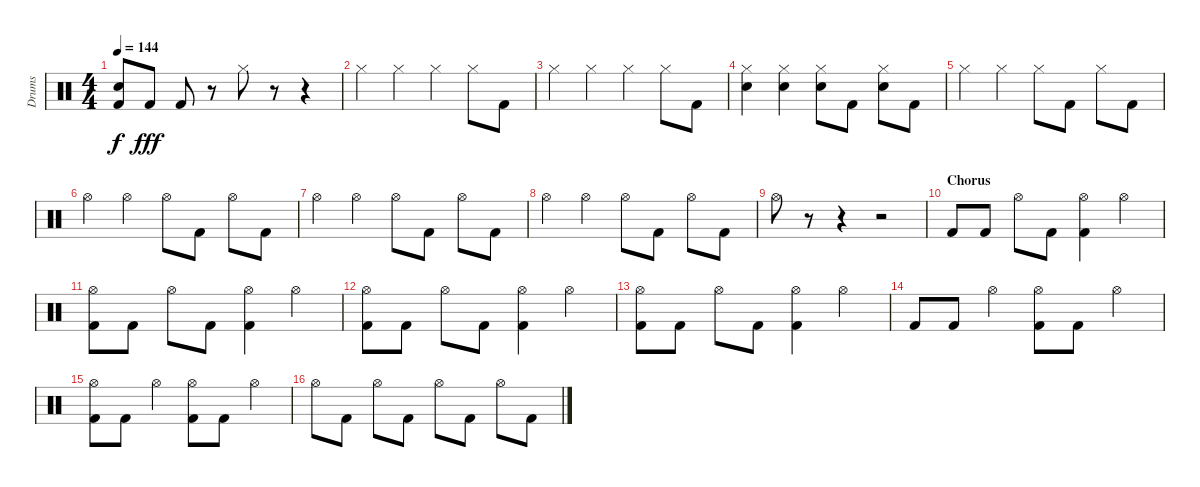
\track ("Drums" "Drums") {instrument percussion}
\staff {score}
\articulation defaults
\ts (4 4)
\tempo 144
\clef neutral
\ks c
("Snare (hit)"{t} "Kick (hit) 2").8{dy f} "Kick (hit) 2".8{dy fff} "Kick (hit) 2".8 r.8 "Hi-Hat (closed)".8 r.8 r.4 |
"Hi-Hat (closed)".4 "Hi-Hat (closed)".4 "Hi-Hat (closed)".4 "Hi-Hat (closed)".8 "Kick (hit) 2".8 |
"Hi-Hat (closed)".4 "Hi-Hat (closed)".4 "Hi-Hat (closed)".4 "Hi-Hat (closed)".8 "Kick (hit) 2".8 |
("Hi-Hat (closed)" "Snare (hit) 2").4 ("Hi-Hat (closed)" "Snare (hit) 2").4 ("Hi-Hat (closed)" "Snare (hit) 2").8 "Kick (hit) 2".8 ("Hi-Hat (closed)" "Snare (hit) 2").8 "Kick (hit) 2".8 |
"Hi-Hat (closed)".4 "Hi-Hat (closed)".4 "Hi-Hat (closed)".8 "Kick (hit) 2".8 "Hi-Hat (closed)".8 "Kick (hit) 2".8 |
"Hi-Hat (open)".4 "Hi-Hat (open)".4 "Hi-Hat (open)".8 "Kick (hit) 2".8 "Hi-Hat (open)".8 "Kick (hit) 2".8 |
"Hi-Hat (open)".4 "Hi-Hat (open)".4 "Hi-Hat (open)".8 "Kick (hit) 2".8 "Hi-Hat (open)".8 "Kick (hit) 2".8 |
"Hi-Hat (open)".4 "Hi-Hat (open)".4 "Hi-Hat (open)".8 "Kick (hit) 2".8 "Hi-Hat (open)".8 "Kick (hit) 2".8 |
"Hi-Hat (open)".8 r.8 r.4 r.2 |
\section ("" "Chorus")
"Kick (hit) 2".8 "Kick (hit) 2".8 "Hi-Hat (open)".8 "Kick (hit) 2".8 ("Hi-Hat (open)" "Kick (hit) 2").4 "Hi-Hat (open)".4 |
("Hi-Hat (open)" "Kick (hit) 2").8 "Kick (hit) 2".8 "Hi-Hat (open)".8 "Kick (hit) 2".8 ("Hi-Hat (open)" "Kick (hit) 2").4 "Hi-Hat (open)".4 |
("Hi-Hat (open)" "Kick (hit) 2").8 "Kick (hit) 2".8 "Hi-Hat (open)".8 "Kick (hit) 2".8 ("Hi-Hat (open)" "Kick (hit) 2").4 "Hi-Hat (open)".4 |
("Hi-Hat (open)" "Kick (hit) 2").8 "Kick (hit) 2".8 "Hi-Hat (open)".8 "Kick (hit) 2".8 ("Hi-Hat (open)" "Kick (hit) 2").4 "Hi-Hat (open)".4 |
"Kick (hit) 2".8 "Kick (hit) 2".8 "Hi-Hat (open)".4 ("Hi-Hat (open)" "Kick (hit) 2").8 "Kick (hit) 2".8 "Hi-Hat (open)".4 |
("Hi-Hat (open)" "Kick (hit) 2").8 "Kick (hit) 2".8 "Hi-Hat (open)".4 ("Hi-Hat (open)" "Kick (hit) 2").8 "Kick (hit) 2".8 "Hi-Hat (open)".4 |
"Hi-Hat (open)".8 "Kick (hit) 2".8 "Hi-Hat (open)".8 "Kick (hit) 2".8 "Hi-Hat (open)".8 "Kick (hit) 2".8 "Hi-Hat (open)".8 "Kick (hit) 2".8
